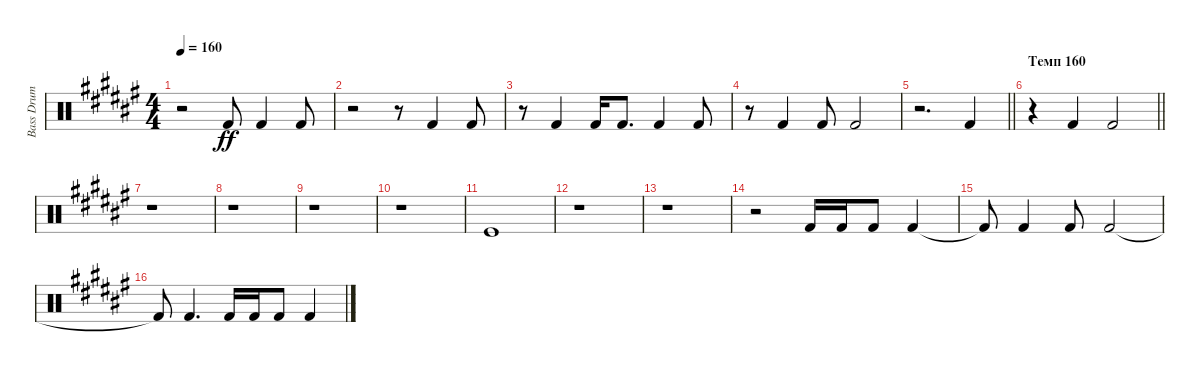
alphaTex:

\track ("Bass Drum" "Bass Drum") {instrument percussion}
\staff {score}
\articulation defaults
\ts (4 4)
\tempo 160
\clef neutral
\ks d#minor
r.2{dy ff} "Kick (hit) 2".8 "Kick (hit) 2".4 "Kick (hit) 2".8 |
r.2 r.8 "Kick (hit) 2".4 "Kick (hit) 2".8 |
r.8 "Kick (hit) 2".4 "Kick (hit) 2".16 "Kick (hit) 2".8{d} "Kick (hit) 2".4 "Kick (hit) 2".8 |
r.8 "Kick (hit) 2".4 "Kick (hit) 2".8 "Kick (hit) 2".2 |
\barLineRight lightlight
r.2{d} "Kick (hit) 2".4 |
\section ("" "Темп 160")
\barLineRight lightlight
r.4 "Kick (hit) 2".4 "Kick (hit) 2".2 |
r.1 |
r.1 |
r.1 |
r.1 |
"Kick (hit)".1 |
r.1 |
r.1 |
r.2 "Kick (hit) 2".16 "Kick (hit) 2".16 "Kick (hit) 2".8 "Kick (hit) 2".4 |
"Kick (hit) 2"{t}.8 "Kick (hit) 2".4 "Kick (hit) 2".8 "Kick (hit) 2".2 |
"Kick (hit) 2"{t}.8 "Kick (hit) 2".4{d} "Kick (hit) 2".16 "Kick (hit) 2".16 "Kick (hit) 2".8 "Kick (hit) 2".4
